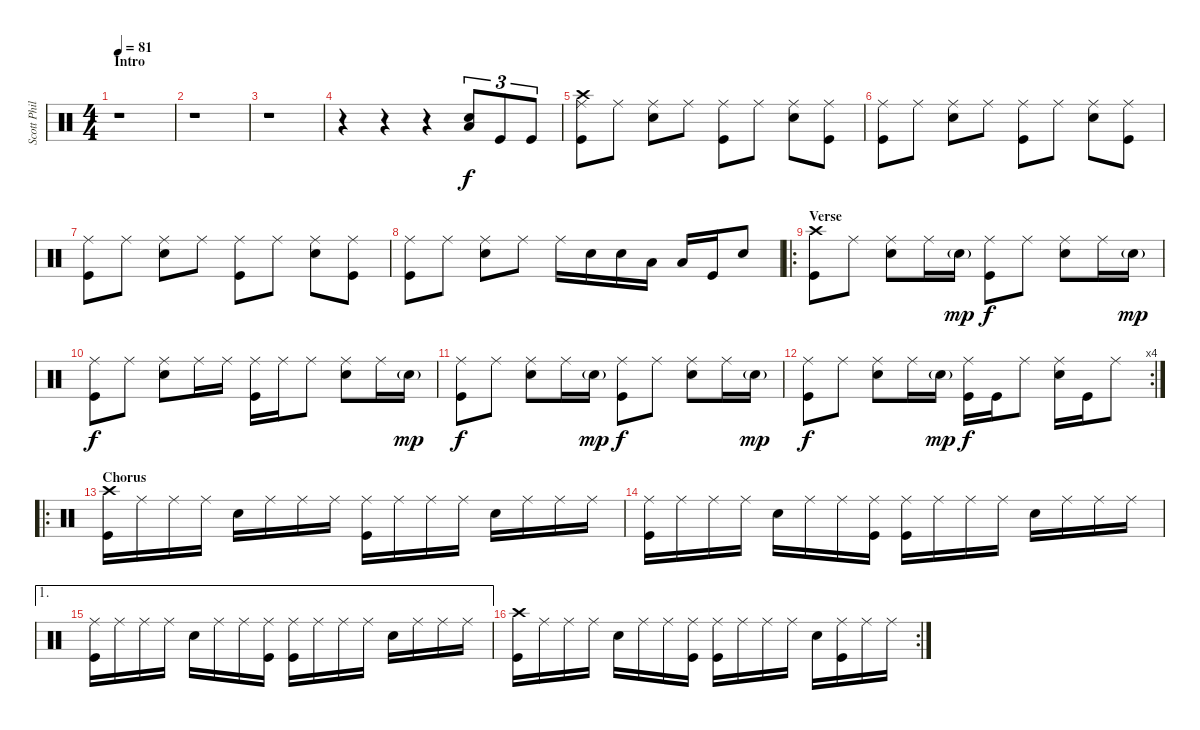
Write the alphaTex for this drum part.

\track ("Scott Phillips" "Scott Phil") {instrument percussion}
\staff {score}
\articulation defaults
\ts (4 4)
\section ("" "Intro")
\tempo 81
\clef neutral
\ks c
r.1{dy f} |
r.1 |
r.1 |
r.4 r.4 r.4 ("Low Tom (hit)" "Snare (hit) 2").8{tu (3 2)} "Kick (hit)".8{tu (3 2)} "Kick (hit)".8{tu (3 2)} |
("Crash high (hit)" "Ride (middle)" "Kick (hit)").8 "Ride (middle)".8 ("Ride (middle)" "Snare (hit) 2").8 "Ride (middle)".8 ("Ride (middle)" "Kick (hit)").8 "Ride (middle)".8 ("Ride (middle)" "Snare (hit) 2").8 ("Ride (middle)" "Kick (hit)").8 |
("Ride (middle)" "Kick (hit)").8 "Ride (middle)".8 ("Ride (middle)" "Snare (hit) 2").8 "Ride (middle)".8 ("Ride (middle)" "Kick (hit)").8 "Ride (middle)".8 ("Ride (middle)" "Snare (hit) 2").8 ("Ride (middle)" "Kick (hit)").8 |
("Ride (middle)" "Kick (hit)").8 "Ride (middle)".8 ("Ride (middle)" "Snare (hit) 2").8 "Ride (middle)".8 ("Ride (middle)" "Kick (hit)").8 "Ride (middle)".8 ("Ride (middle)" "Snare (hit) 2").8 ("Ride (middle)" "Kick (hit)").8 |
("Ride (middle)" "Kick (hit)").8 "Ride (middle)".8 ("Ride (middle)" "Snare (hit) 2").8 "Ride (middle)".8 "Ride (middle)".16 "Snare (hit) 2".16 "Snare (hit) 2".16 "Low Tom (hit)".16 "Low Tom (hit)".16 "Kick (hit)".16 "Snare (hit) 2".8 |
\ro
\section ("" "Verse")
("Crash high (hit)" "Kick (hit)").8 "Ride (middle)".8 ("Ride (middle)" "Snare (hit) 2").8 "Ride (middle)".16 "Snare (hit) 2"{g}.16{dy mp} ("Ride (middle)" "Kick (hit)").8{dy f} "Ride (middle)".8 ("Ride (middle)" "Snare (hit) 2").8 "Ride (middle)".16 "Snare (hit) 2"{g}.16{dy mp} |
("Ride (middle)" "Kick (hit)").8{dy f} "Ride (middle)".8 ("Ride (middle)" "Snare (hit) 2").8 "Ride (middle)".16 "Ride (middle)".16 ("Ride (middle)" "Kick (hit)").16 "Ride (middle)".16 "Ride (middle)".8 ("Ride (middle)" "Snare (hit) 2").8 "Ride (middle)".16 "Snare (hit) 2"{g}.16{dy mp} |
("Ride (middle)" "Kick (hit)").8{dy f} "Ride (middle)".8 ("Ride (middle)" "Snare (hit) 2").8 "Ride (middle)".16 "Snare (hit) 2"{g}.16{dy mp} ("Ride (middle)" "Kick (hit)").8{dy f} "Ride (middle)".8 ("Ride (middle)" "Snare (hit) 2").8 "Ride (middle)".16 "Snare (hit) 2"{g}.16{dy mp} |
\rc 4
("Ride (middle)" "Kick (hit)").8{dy f} "Ride (middle)".8 ("Ride (middle)" "Snare (hit) 2").8 "Ride (middle)".16 "Snare (hit) 2"{g}.16{dy mp} ("Ride (middle)" "Kick (hit)").16{dy f} "Kick (hit)".16 "Ride (middle)".8 ("Ride (middle)" "Snare (hit) 2").16 "Kick (hit)".16 "Ride (middle)".8 |
\ro
\section ("" "Chorus")
("Crash high (hit)" "Kick (hit)").16 "Ride (middle)".16 "Ride (middle)".16 "Ride (middle)".16 "Snare (hit) 2".16 "Ride (middle)".16 "Ride (middle)".16 "Ride (middle)".16 ("Ride (middle)" "Kick (hit)").16 "Ride (middle)".16 "Ride (middle)".16 "Ride (middle)".16 "Snare (hit) 2".16 "Ride (middle)".16 "Ride (middle)".16 "Ride (middle)".16 |
("Ride (middle)" "Kick (hit)").16 "Ride (middle)".16 "Ride (middle)".16 "Ride (middle)".16 "Snare (hit) 2".16 "Ride (middle)".16 "Ride (middle)".16 ("Ride (middle)" "Kick (hit)").16 ("Ride (middle)" "Kick (hit)").16 "Ride (middle)".16 "Ride (middle)".16 "Ride (middle)".16 "Snare (hit) 2".16 "Ride (middle)".16 "Ride (middle)".16 "Ride (middle)".16 |
\ae 1
("Ride (middle)" "Kick (hit)").16 "Ride (middle)".16 "Ride (middle)".16 "Ride (middle)".16 "Snare (hit) 2".16 "Ride (middle)".16 "Ride (middle)".16 ("Ride (middle)" "Kick (hit)").16 ("Ride (middle)" "Kick (hit)").16 "Ride (middle)".16 "Ride (middle)".16 "Ride (middle)".16 "Snare (hit) 2".16 "Ride (middle)".16 "Ride (middle)".16 "Ride (middle)".16 |
\rc 2
("Crash high (hit)" "Kick (hit)").16 "Ride (middle)".16 "Ride (middle)".16 "Ride (middle)".16 "Snare (hit) 2".16 "Ride (middle)".16 "Ride (middle)".16 ("Ride (middle)" "Kick (hit)").16 ("Ride (middle)" "Kick (hit)").16 "Ride (middle)".16 "Ride (middle)".16 "Ride (middle)".16 "Snare (hit) 2".16 ("Ride (middle)" "Kick (hit)").16 "Ride (middle)".16 "Ride (middle)".16
